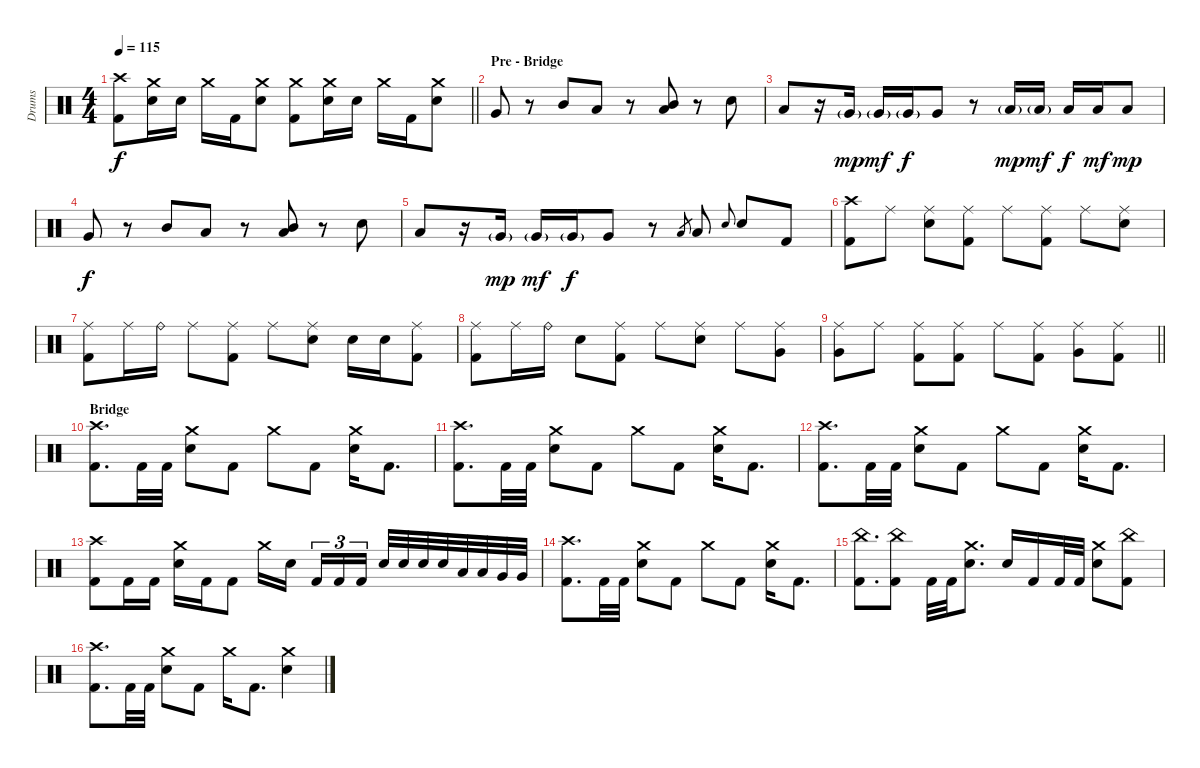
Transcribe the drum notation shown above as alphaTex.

\track ("Drums" "Drums") {instrument percussion}
\staff {score}
\articulation defaults
\ts (4 4)
\tempo 115
\clef neutral
\barLineRight lightlight
\ks c
("Crash high (hit)" "Kick (hit) 2").8{dy f} ("Crash medium (hit)" "Electric Snare (hit)").16 "Electric Snare (hit)".16 "Crash medium (hit)".16 "Kick (hit) 2".16 ("Crash medium (hit)" "Electric Snare (hit)").8 ("Crash medium (hit)" "Kick (hit) 2").8 ("Crash medium (hit)" "Electric Snare (hit)").16 "Electric Snare (hit)".16 "Crash medium (hit)".16 "Kick (hit) 2".16 ("Crash medium (hit)" "Electric Snare (hit)").8 |
\section ("" "Pre - Bridge")
"Very Low Tom (hit)".8 r.8 "Mid Tom (hit)".8 "Low Tom (hit)".8 r.8 ("Mid Tom (hit)" "Low Tom (hit)").8 r.8 "Electric Snare (hit)".8 |
"Low Tom (hit)".8 r.16 "Very Low Tom (hit)"{g}.16{dy mp} "Very Low Tom (hit)"{g}.16{dy mf} "Very Low Tom (hit)"{g}.16{dy f} "Very Low Tom (hit)".8 r.8 "Low Floor Tom (hit)"{g}.16{dy mp} "Low Floor Tom (hit)"{g}.16{dy mf} "Low Floor Tom (hit)".16{dy f} "Low Floor Tom (hit)".16{dy mf} "Low Floor Tom (hit)".8{dy mp} |
"Very Low Tom (hit)".8{dy f} r.8 "Mid Tom (hit)".8 "Low Tom (hit)".8 r.8 ("Mid Tom (hit)" "Low Tom (hit)").8 r.8 "Electric Snare (hit)".8 |
"Low Tom (hit)".8 r.16 "Very Low Tom (hit)"{g}.16{dy mp} "Very Low Tom (hit)"{g}.16{dy mf} "Very Low Tom (hit)"{g}.16{dy f} "Very Low Tom (hit)".8 r.8 "Low Floor Tom (hit)".8{gr} "Low Floor Tom (hit)".8 "Electric Snare (hit)".8{gr onbeat} "Electric Snare (hit)".8 "Kick (hit) 2".8 |
("Crash high (hit)" "Kick (hit) 2").8 "Ride (middle)".8 ("Ride (middle)" "Electric Snare (hit)").8 ("Ride (middle)" "Kick (hit) 2").8 "Ride (middle)".8 ("Ride (middle)" "Kick (hit) 2").8 "Ride (middle)".8 ("Ride (middle)" "Electric Snare (hit)").8 |
("Ride (middle)" "Kick (hit) 2").8 "Ride (middle)".16 "Ride (bell)".16 "Ride (middle)".8 ("Ride (middle)" "Kick (hit) 2").8 "Ride (middle)".8 ("Ride (middle)" "Electric Snare (hit)").8 "Electric Snare (hit)".16 "Electric Snare (hit)".16 ("Ride (middle)" "Kick (hit) 2").8 |
("Ride (middle)" "Kick (hit) 2").8 "Ride (middle)".16 "Ride (bell)".16 "Electric Snare (hit)".8 ("Ride (middle)" "Kick (hit) 2").8 "Ride (middle)".8 ("Ride (middle)" "Electric Snare (hit)").8 "Ride (middle)".8 ("Ride (middle)" "Very Low Tom (hit)").8 |
\barLineRight lightlight
("Ride (middle)" "Very Low Tom (hit)").8 "Ride (middle)".8 ("Ride (middle)" "Kick (hit) 2").8 ("Ride (middle)" "Kick (hit) 2").8 "Ride (middle)".8 ("Ride (middle)" "Kick (hit) 2").8 ("Ride (middle)" "Very Low Tom (hit)").8 ("Ride (middle)" "Kick (hit) 2").8 |
\section ("" "Bridge")
("Crash high (hit)" "Kick (hit) 2").8{d} "Kick (hit) 2".32 "Kick (hit) 2".32 ("Crash medium (hit)" "Electric Snare (hit)").8 "Kick (hit) 2".8 "Crash medium (hit)".8 "Kick (hit) 2".8 ("Crash medium (hit)" "Electric Snare (hit)").16 "Kick (hit) 2".8{d} |
("Crash high (hit)" "Kick (hit) 2").8{d} "Kick (hit) 2".32 "Kick (hit) 2".32 ("Crash medium (hit)" "Electric Snare (hit)").8 "Kick (hit) 2".8 "Crash medium (hit)".8 "Kick (hit) 2".8 ("Crash medium (hit)" "Electric Snare (hit)").16 "Kick (hit) 2".8{d} |
("Crash high (hit)" "Kick (hit) 2").8{d} "Kick (hit) 2".32 "Kick (hit) 2".32 ("Crash medium (hit)" "Electric Snare (hit)").8 "Kick (hit) 2".8 "Crash medium (hit)".8 "Kick (hit) 2".8 ("Crash medium (hit)" "Electric Snare (hit)").16 "Kick (hit) 2".8{d} |
("Crash high (hit)" "Kick (hit) 2").8 "Kick (hit) 2".16 "Kick (hit) 2".16 ("Crash medium (hit)" "Electric Snare (hit)").16 "Kick (hit) 2".16 "Kick (hit) 2".8 "Crash medium (hit)".16 "Electric Snare (hit)".16{beam splitsecondary} "Kick (hit) 2".16{tu (3 2)} "Kick (hit) 2".16{tu (3 2)} "Kick (hit) 2".16{tu (3 2)} "Electric Snare (hit)".32 "Electric Snare (hit)".32 "Electric Snare (hit)".32 "Electric Snare (hit)".32 "Low Tom (hit)".32 "Low Tom (hit)".32 "Very Low Tom (hit)".32 "Very Low Tom (hit)".32 |
("Crash high (hit)" "Kick (hit) 2").8{d} "Kick (hit) 2".32 "Kick (hit) 2".32 ("Crash medium (hit)" "Electric Snare (hit)").8 "Kick (hit) 2".8 "Crash medium (hit)".8 "Kick (hit) 2".8 ("Crash medium (hit)" "Electric Snare (hit)").16 "Kick (hit) 2".8{d} |
("China (hit)" "Kick (hit) 2").8{d} ("China (hit)" "Kick (hit) 2").8 "Kick (hit) 2".32 "Kick (hit) 2".32 ("Crash medium (hit)" "Electric Snare (hit)").8{d} "Electric Snare (hit)".16 "Kick (hit) 2".16 "Kick (hit) 2".32 "Kick (hit) 2".32 ("Crash medium (hit)" "Electric Snare (hit)").8 ("China (hit)" "Kick (hit) 2").8 |
("Crash high (hit)" "Kick (hit) 2").8{d} "Kick (hit) 2".32 "Kick (hit) 2".32 ("Crash medium (hit)" "Electric Snare (hit)").8 "Kick (hit) 2".8 "Crash medium (hit)".16 "Kick (hit) 2".8{d} ("Crash medium (hit)" "Electric Snare (hit)").4
